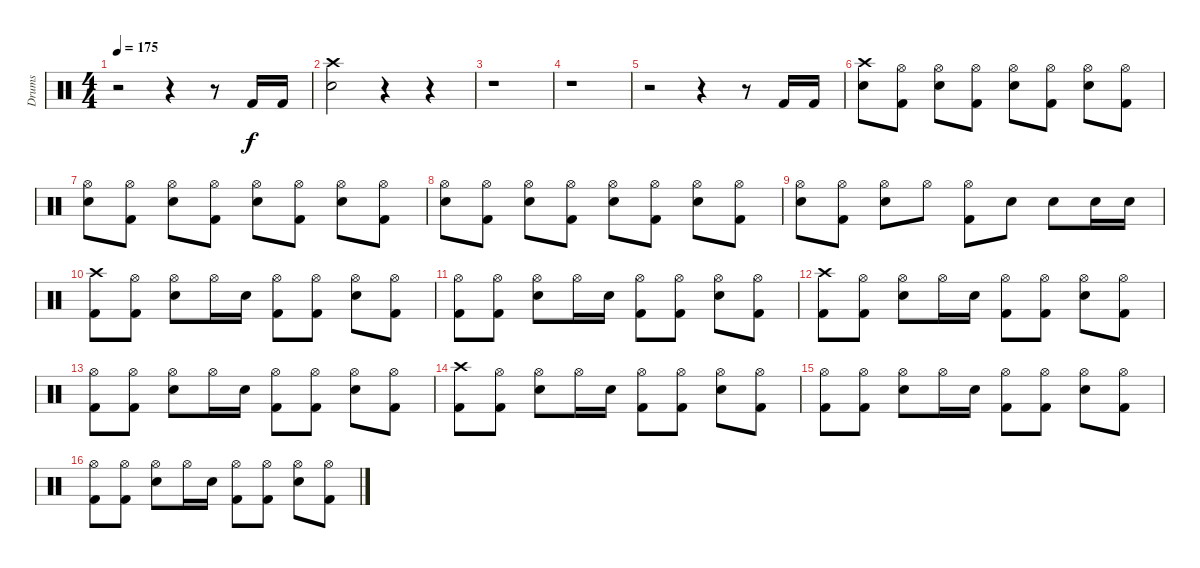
\track ("Drums" "Drums") {instrument percussion}
\staff {score}
\articulation defaults
\ts (4 4)
\tempo 175
\clef neutral
\ks c
r.2{dy f} r.4 r.8 "Kick (hit) 2".16 "Kick (hit) 2".16 |
("Crash high (hit)" "Snare (hit) 2").2 r.4 r.4 |
r.1 |
r.1 |
r.2 r.4 r.8 "Kick (hit) 2".16 "Kick (hit) 2".16 |
("Crash high (hit)" "Snare (hit) 2").8 ("Hi-Hat (open)" "Kick (hit) 2").8 ("Hi-Hat (open)" "Snare (hit) 2").8 ("Hi-Hat (open)" "Kick (hit) 2").8 ("Hi-Hat (open)" "Snare (hit) 2").8 ("Hi-Hat (open)" "Kick (hit) 2").8 ("Hi-Hat (open)" "Snare (hit) 2").8 ("Hi-Hat (open)" "Kick (hit) 2").8 |
("Hi-Hat (open)" "Snare (hit) 2").8 ("Hi-Hat (open)" "Kick (hit) 2").8 ("Hi-Hat (open)" "Snare (hit) 2").8 ("Hi-Hat (open)" "Kick (hit) 2").8 ("Hi-Hat (open)" "Snare (hit) 2").8 ("Hi-Hat (open)" "Kick (hit) 2").8 ("Hi-Hat (open)" "Snare (hit) 2").8 ("Hi-Hat (open)" "Kick (hit) 2").8 |
("Hi-Hat (open)" "Snare (hit) 2").8 ("Hi-Hat (open)" "Kick (hit) 2").8 ("Hi-Hat (open)" "Snare (hit) 2").8 ("Hi-Hat (open)" "Kick (hit) 2").8 ("Hi-Hat (open)" "Snare (hit) 2").8 ("Hi-Hat (open)" "Kick (hit) 2").8 ("Hi-Hat (open)" "Snare (hit) 2").8 ("Hi-Hat (open)" "Kick (hit) 2").8 |
("Hi-Hat (open)" "Snare (hit) 2").8 ("Hi-Hat (open)" "Kick (hit) 2").8 ("Hi-Hat (open)" "Snare (hit) 2").8 "Hi-Hat (open)".8 ("Hi-Hat (open)" "Kick (hit) 2").8 "Snare (hit) 2".8 "Snare (hit) 2".8 "Snare (hit) 2".16 "Snare (hit) 2".16 |
("Crash high (hit)" "Kick (hit) 2").8 ("Hi-Hat (open)" "Kick (hit) 2").8 ("Hi-Hat (open)" "Snare (hit) 2").8 "Hi-Hat (open)".16 "Snare (hit) 2".16 ("Hi-Hat (open)" "Kick (hit) 2").8 ("Hi-Hat (open)" "Kick (hit) 2").8 ("Hi-Hat (open)" "Snare (hit) 2").8 ("Hi-Hat (open)" "Kick (hit) 2").8 |
("Hi-Hat (open)" "Kick (hit) 2").8 ("Hi-Hat (open)" "Kick (hit) 2").8 ("Hi-Hat (open)" "Snare (hit) 2").8 "Hi-Hat (open)".16 "Snare (hit) 2".16 ("Hi-Hat (open)" "Kick (hit) 2").8 ("Hi-Hat (open)" "Kick (hit) 2").8 ("Hi-Hat (open)" "Snare (hit) 2").8 ("Hi-Hat (open)" "Kick (hit) 2").8 |
("Crash high (hit)" "Kick (hit) 2").8 ("Hi-Hat (open)" "Kick (hit) 2").8 ("Hi-Hat (open)" "Snare (hit) 2").8 "Hi-Hat (open)".16 "Snare (hit) 2".16 ("Hi-Hat (open)" "Kick (hit) 2").8 ("Hi-Hat (open)" "Kick (hit) 2").8 ("Hi-Hat (open)" "Snare (hit) 2").8 ("Hi-Hat (open)" "Kick (hit) 2").8 |
("Hi-Hat (open)" "Kick (hit) 2").8 ("Hi-Hat (open)" "Kick (hit) 2").8 ("Hi-Hat (open)" "Snare (hit) 2").8 "Hi-Hat (open)".16 "Snare (hit) 2".16 ("Hi-Hat (open)" "Kick (hit) 2").8 ("Hi-Hat (open)" "Kick (hit) 2").8 ("Hi-Hat (open)" "Snare (hit) 2").8 ("Hi-Hat (open)" "Kick (hit) 2").8 |
("Crash high (hit)" "Kick (hit) 2").8 ("Hi-Hat (open)" "Kick (hit) 2").8 ("Hi-Hat (open)" "Snare (hit) 2").8 "Hi-Hat (open)".16 "Snare (hit) 2".16 ("Hi-Hat (open)" "Kick (hit) 2").8 ("Hi-Hat (open)" "Kick (hit) 2").8 ("Hi-Hat (open)" "Snare (hit) 2").8 ("Hi-Hat (open)" "Kick (hit) 2").8 |
("Hi-Hat (open)" "Kick (hit) 2").8 ("Hi-Hat (open)" "Kick (hit) 2").8 ("Hi-Hat (open)" "Snare (hit) 2").8 "Hi-Hat (open)".16 "Snare (hit) 2".16 ("Hi-Hat (open)" "Kick (hit) 2").8 ("Hi-Hat (open)" "Kick (hit) 2").8 ("Hi-Hat (open)" "Snare (hit) 2").8 ("Hi-Hat (open)" "Kick (hit) 2").8 |
("Hi-Hat (open)" "Kick (hit) 2").8 ("Hi-Hat (open)" "Kick (hit) 2").8 ("Hi-Hat (open)" "Snare (hit) 2").8 "Hi-Hat (open)".16 "Snare (hit) 2".16 ("Hi-Hat (open)" "Kick (hit) 2").8 ("Hi-Hat (open)" "Kick (hit) 2").8 ("Hi-Hat (open)" "Snare (hit) 2").8 ("Hi-Hat (open)" "Kick (hit) 2").8
